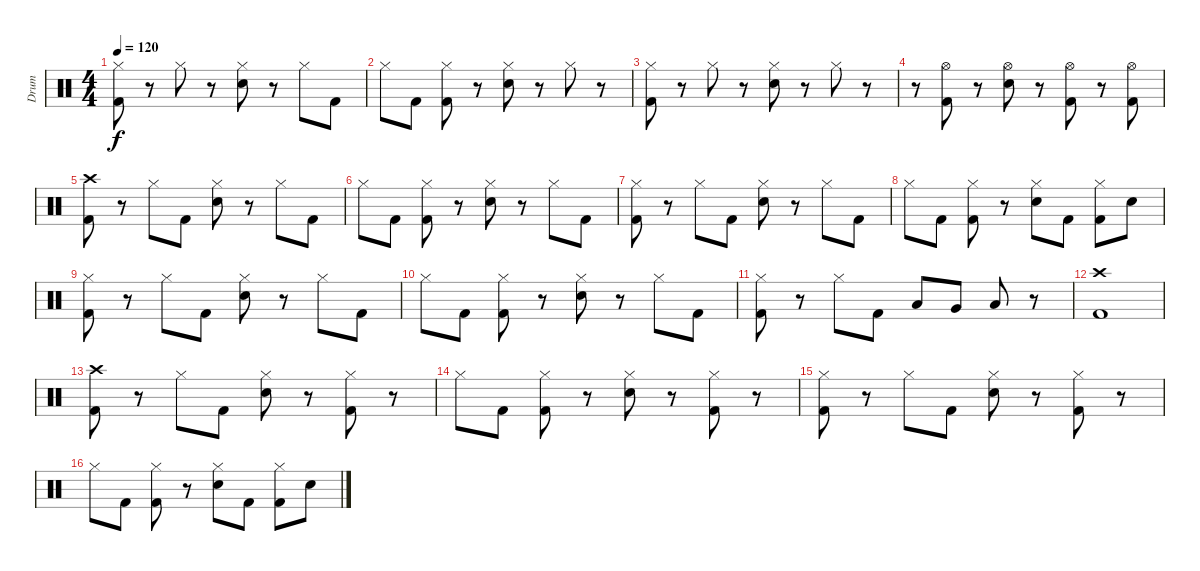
\track ("Drum" "Drum") {instrument percussion}
\staff {score}
\articulation defaults
\ts (4 4)
\tempo 120
\clef neutral
\ks c
("Hi-Hat (closed)" "Kick (hit) 2").8{dy f} r.8 "Hi-Hat (closed)".8 r.8 ("Hi-Hat (closed)" "Electric Snare (hit)").8 r.8 "Hi-Hat (closed)".8 "Kick (hit) 2".8 |
"Hi-Hat (closed)".8 "Kick (hit) 2".8 ("Hi-Hat (closed)" "Kick (hit) 2").8 r.8 ("Hi-Hat (closed)" "Electric Snare (hit)").8 r.8 "Hi-Hat (closed)".8 r.8 |
("Hi-Hat (closed)" "Kick (hit) 2").8 r.8 "Hi-Hat (closed)".8 r.8 ("Hi-Hat (closed)" "Electric Snare (hit)").8 r.8 "Hi-Hat (closed)".8 r.8 |
r.8 ("Hi-Hat (open)" "Kick (hit) 2").8 r.8 ("Hi-Hat (open)" "Electric Snare (hit)").8 r.8 ("Hi-Hat (open)" "Kick (hit) 2").8 r.8 ("Hi-Hat (open)" "Kick (hit) 2").8 |
("Crash high (hit)" "Kick (hit) 2").8 r.8 "Hi-Hat (closed)".8 "Kick (hit) 2".8 ("Hi-Hat (closed)" "Electric Snare (hit)").8 r.8 "Hi-Hat (closed)".8 "Kick (hit) 2".8 |
"Hi-Hat (closed)".8 "Kick (hit) 2".8 ("Hi-Hat (closed)" "Kick (hit) 2").8 r.8 ("Hi-Hat (closed)" "Electric Snare (hit)").8 r.8 "Hi-Hat (closed)".8 "Kick (hit) 2".8 |
("Hi-Hat (closed)" "Kick (hit) 2").8 r.8 "Hi-Hat (closed)".8 "Kick (hit) 2".8 ("Hi-Hat (closed)" "Electric Snare (hit)").8 r.8 "Hi-Hat (closed)".8 "Kick (hit) 2".8 |
"Hi-Hat (closed)".8 "Kick (hit) 2".8 ("Hi-Hat (closed)" "Kick (hit) 2").8 r.8 ("Hi-Hat (closed)" "Electric Snare (hit)").8 "Kick (hit) 2".8 ("Hi-Hat (closed)" "Kick (hit) 2").8 "Electric Snare (hit)".8 |
("Hi-Hat (closed)" "Kick (hit) 2").8 r.8 "Hi-Hat (closed)".8 "Kick (hit) 2".8 ("Hi-Hat (closed)" "Electric Snare (hit)").8 r.8 "Hi-Hat (closed)".8 "Kick (hit) 2".8 |
"Hi-Hat (closed)".8 "Kick (hit) 2".8 ("Hi-Hat (closed)" "Kick (hit) 2").8 r.8 ("Hi-Hat (closed)" "Electric Snare (hit)").8 r.8 "Hi-Hat (closed)".8 "Kick (hit) 2".8 |
("Hi-Hat (closed)" "Kick (hit) 2").8 r.8 "Hi-Hat (closed)".8 "Kick (hit) 2".8 "Low Tom (hit)".8 "Very Low Tom (hit)".8 "Low Floor Tom (hit)".8 r.8 |
("Crash high (hit)" "Kick (hit) 2").1 |
("Crash high (hit)" "Kick (hit) 2").8 r.8 "Hi-Hat (closed)".8 "Kick (hit) 2".8 ("Hi-Hat (closed)" "Electric Snare (hit)").8 r.8 ("Hi-Hat (closed)" "Kick (hit) 2").8 r.8 |
"Hi-Hat (closed)".8 "Kick (hit) 2".8 ("Hi-Hat (closed)" "Kick (hit) 2").8 r.8 ("Hi-Hat (closed)" "Electric Snare (hit)").8 r.8 ("Hi-Hat (closed)" "Kick (hit) 2").8 r.8 |
("Hi-Hat (closed)" "Kick (hit) 2").8 r.8 "Hi-Hat (closed)".8 "Kick (hit) 2".8 ("Hi-Hat (closed)" "Electric Snare (hit)").8 r.8 ("Hi-Hat (closed)" "Kick (hit) 2").8 r.8 |
"Hi-Hat (closed)".8 "Kick (hit) 2".8 ("Hi-Hat (closed)" "Kick (hit) 2").8 r.8 ("Hi-Hat (closed)" "Electric Snare (hit)").8 "Kick (hit) 2".8 ("Hi-Hat (closed)" "Kick (hit) 2").8 "Electric Snare (hit)".8
